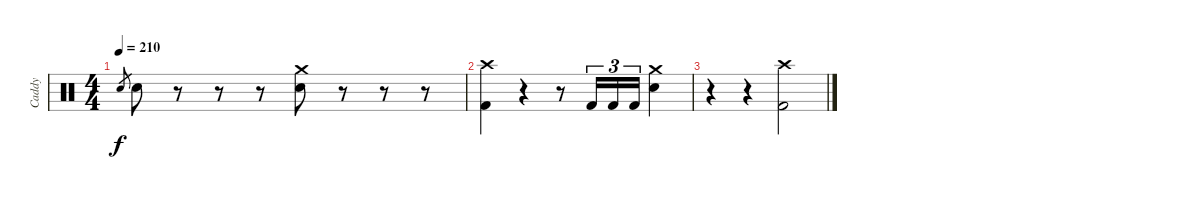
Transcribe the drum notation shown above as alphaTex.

\track ("Caddy" "Caddy") {instrument percussion}
\staff {score}
\articulation defaults
\ts (4 4)
\tempo 210
\clef neutral
\ks c "Electric Snare (hit)".8{gr dy f} "Electric Snare (hit)".8
r.8 r.8 r.8 ("Crash medium (hit)" "Electric Snare (hit)").8 r.8 r.8 r.8 |
("Crash high (hit)" "Kick (hit) 2").4 r.4 r.8 "Kick (hit) 2".16{tu (3 2)} "Kick (hit) 2".16{tu (3 2)} "Kick (hit) 2".16{tu (3 2)} ("Crash medium (hit)" "Electric Snare (hit)").4 |
r.4 r.4 ("Crash high (hit)" "Kick (hit) 2").2
